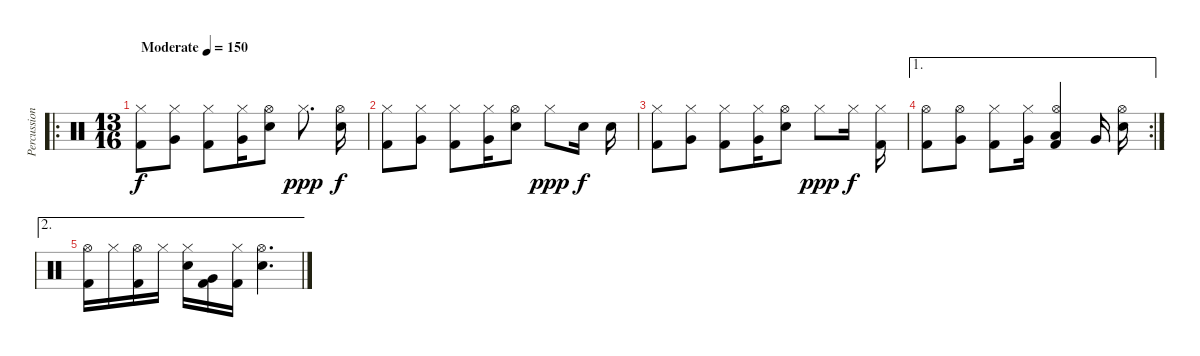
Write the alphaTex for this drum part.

\track ("Percussion" "Percussion") {instrument percussion}
\staff {score}
\articulation defaults
\ro
\ts (13 16)
\tempo (150 "Moderate")
\clef neutral
\ks c
("Hi-Hat (closed)" "Kick (hit) 2").8{dy f} ("Very Low Tom (hit)" "Hi-Hat (closed)").8 ("Hi-Hat (closed)" "Kick (hit) 2").8 ("Very Low Tom (hit)" "Hi-Hat (closed)").16 ("Hi-Hat (open)" "Electric Snare (hit)").8 "Hi-Hat (closed)".8{d dy ppp} ("Hi-Hat (open)" "Electric Snare (hit)").16{dy f} |
("Hi-Hat (closed)" "Kick (hit) 2").8 ("Very Low Tom (hit)" "Hi-Hat (closed)").8 ("Hi-Hat (closed)" "Kick (hit) 2").8 ("Very Low Tom (hit)" "Hi-Hat (closed)").16 ("Hi-Hat (open)" "Electric Snare (hit)").8 "Hi-Hat (closed)".8{dy ppp} "Electric Snare (hit)".16{dy f} "Electric Snare (hit)".16 |
("Hi-Hat (closed)" "Kick (hit) 2").8 ("Very Low Tom (hit)" "Hi-Hat (closed)").8 ("Hi-Hat (closed)" "Kick (hit) 2").8 ("Very Low Tom (hit)" "Hi-Hat (closed)").16 ("Hi-Hat (open)" "Electric Snare (hit)").8 "Hi-Hat (closed)".8{dy ppp} "Hi-Hat (closed)".16{dy f} ("Hi-Hat (closed)" "Kick (hit) 2").16 |
\ae 1
\rc 2
("Hi-Hat (open)" "Kick (hit) 2").8 ("Very Low Tom (hit)" "Hi-Hat (open)").8 ("Hi-Hat (closed)" "Kick (hit) 2").8 ("Very Low Tom (hit)" "Hi-Hat (closed)").16 ("Low Floor Tom (hit)" "Hi-Hat (open)" "Kick (hit) 2").4 "Very Low Tom (hit)".16 ("Hi-Hat (open)" "Electric Snare (hit)").16 |
\ae 2
("Hi-Hat (open)" "Kick (hit) 2").16 "Hi-Hat (closed)".16 ("Hi-Hat (open)" "Kick (hit) 2").16 "Hi-Hat (closed)".16 ("Hi-Hat (closed)" "Electric Snare (hit)").16 ("Very Low Tom (hit)" "Kick (hit) 2").16 ("Hi-Hat (closed)" "Kick (hit) 2").16 ("Hi-Hat (open)" "Electric Snare (hit)").4{d}
